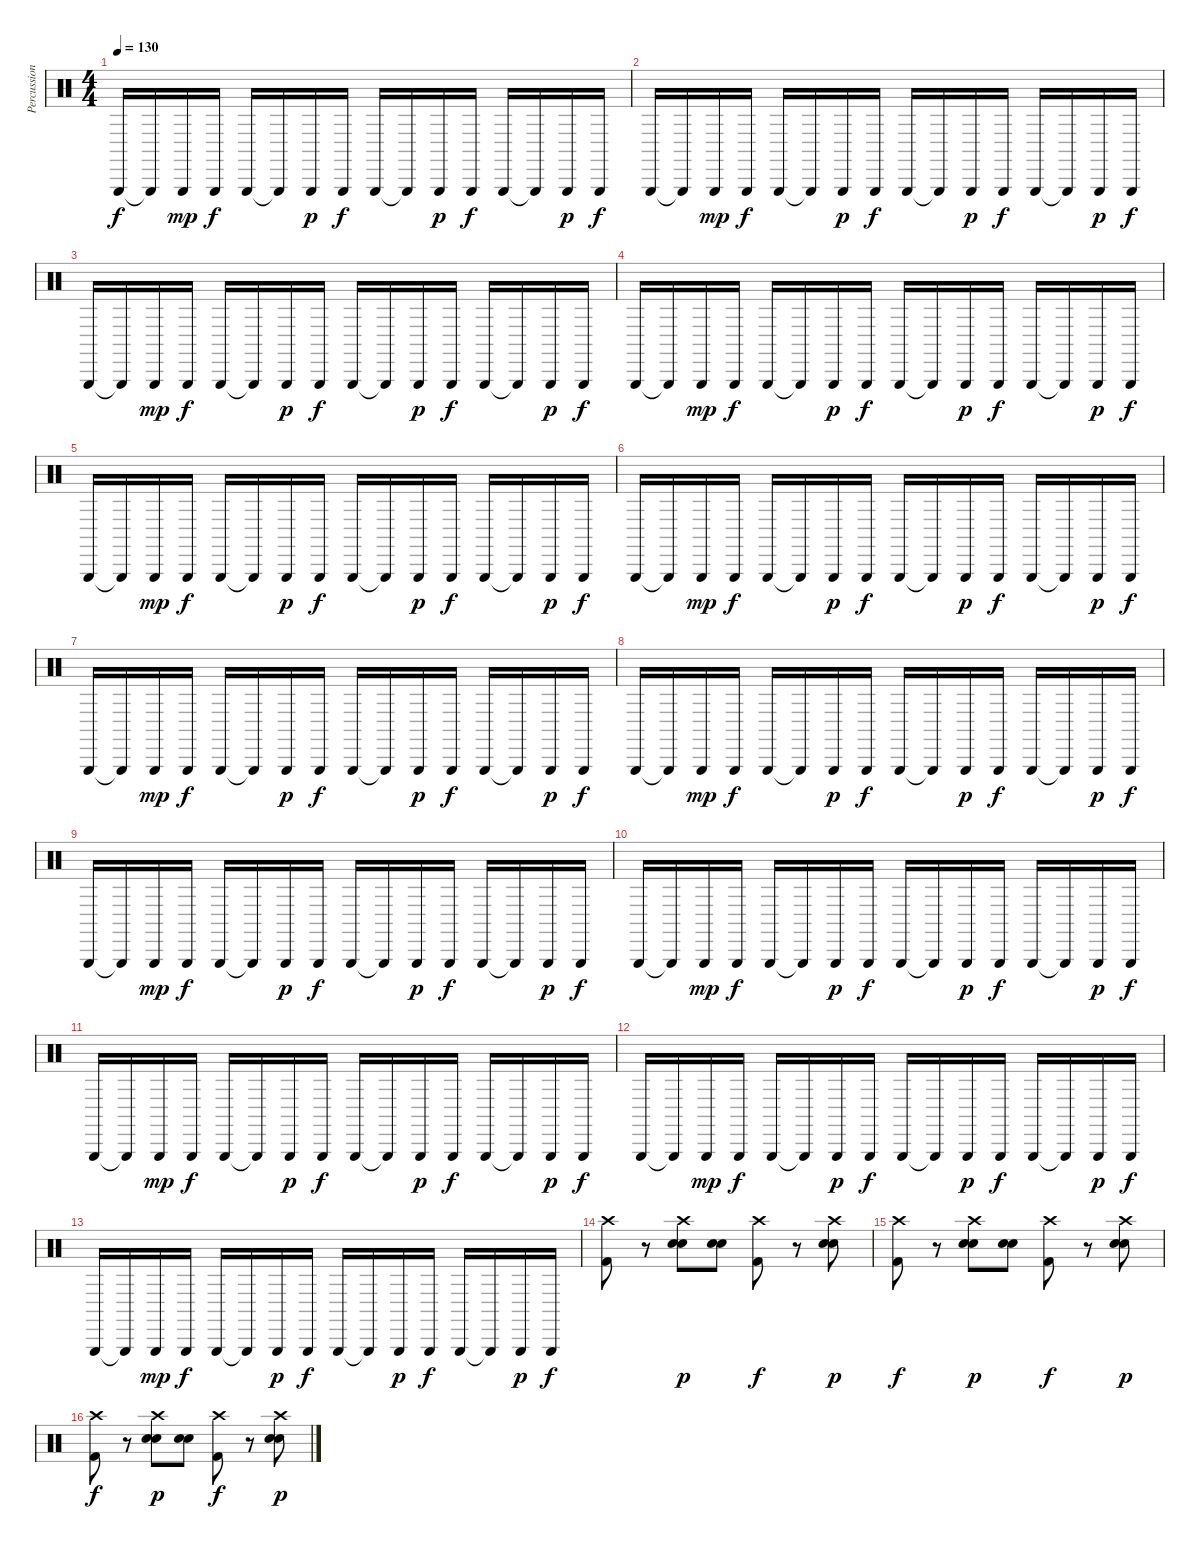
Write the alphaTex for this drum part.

\track ("Percussion" "Percussion") {instrument percussion}
\staff {score}
\articulation defaults
\ts (4 4)
\tempo 130
\clef neutral
\ks c "Triangle (hit)".16{dy f} "Triangle (hit)"{t}.16 "Triangle (hit)".16{dy mp} "Triangle (hit)".16{dy f} "Triangle (hit)".16 "Triangle (hit)"{t}.16 "Triangle (hit)".16{dy p} "Triangle (hit)".16{dy f} "Triangle (hit)".16 "Triangle (hit)"{t}.16 "Triangle (hit)".16{dy p} "Triangle (hit)".16{dy f} "Triangle (hit)".16 "Triangle (hit)"{t}.16 "Triangle (hit)".16{dy p} "Triangle (hit)".16{dy f}
|
"Triangle (hit)".16 "Triangle (hit)"{t}.16 "Triangle (hit)".16{dy mp} "Triangle (hit)".16{dy f} "Triangle (hit)".16 "Triangle (hit)"{t}.16 "Triangle (hit)".16{dy p} "Triangle (hit)".16{dy f} "Triangle (hit)".16 "Triangle (hit)"{t}.16 "Triangle (hit)".16{dy p} "Triangle (hit)".16{dy f} "Triangle (hit)".16 "Triangle (hit)"{t}.16 "Triangle (hit)".16{dy p} "Triangle (hit)".16{dy f} |
"Triangle (hit)".16 "Triangle (hit)"{t}.16 "Triangle (hit)".16{dy mp} "Triangle (hit)".16{dy f} "Triangle (hit)".16 "Triangle (hit)"{t}.16 "Triangle (hit)".16{dy p} "Triangle (hit)".16{dy f} "Triangle (hit)".16 "Triangle (hit)"{t}.16 "Triangle (hit)".16{dy p} "Triangle (hit)".16{dy f} "Triangle (hit)".16 "Triangle (hit)"{t}.16 "Triangle (hit)".16{dy p} "Triangle (hit)".16{dy f} |
"Triangle (hit)".16 "Triangle (hit)"{t}.16 "Triangle (hit)".16{dy mp} "Triangle (hit)".16{dy f} "Triangle (hit)".16 "Triangle (hit)"{t}.16 "Triangle (hit)".16{dy p} "Triangle (hit)".16{dy f} "Triangle (hit)".16 "Triangle (hit)"{t}.16 "Triangle (hit)".16{dy p} "Triangle (hit)".16{dy f} "Triangle (hit)".16 "Triangle (hit)"{t}.16 "Triangle (hit)".16{dy p} "Triangle (hit)".16{dy f} |
"Triangle (hit)".16 "Triangle (hit)"{t}.16 "Triangle (hit)".16{dy mp} "Triangle (hit)".16{dy f} "Triangle (hit)".16 "Triangle (hit)"{t}.16 "Triangle (hit)".16{dy p} "Triangle (hit)".16{dy f} "Triangle (hit)".16 "Triangle (hit)"{t}.16 "Triangle (hit)".16{dy p} "Triangle (hit)".16{dy f} "Triangle (hit)".16 "Triangle (hit)"{t}.16 "Triangle (hit)".16{dy p} "Triangle (hit)".16{dy f} |
"Triangle (hit)".16 "Triangle (hit)"{t}.16 "Triangle (hit)".16{dy mp} "Triangle (hit)".16{dy f} "Triangle (hit)".16 "Triangle (hit)"{t}.16 "Triangle (hit)".16{dy p} "Triangle (hit)".16{dy f} "Triangle (hit)".16 "Triangle (hit)"{t}.16 "Triangle (hit)".16{dy p} "Triangle (hit)".16{dy f} "Triangle (hit)".16 "Triangle (hit)"{t}.16 "Triangle (hit)".16{dy p} "Triangle (hit)".16{dy f} |
"Triangle (hit)".16 "Triangle (hit)"{t}.16 "Triangle (hit)".16{dy mp} "Triangle (hit)".16{dy f} "Triangle (hit)".16 "Triangle (hit)"{t}.16 "Triangle (hit)".16{dy p} "Triangle (hit)".16{dy f} "Triangle (hit)".16 "Triangle (hit)"{t}.16 "Triangle (hit)".16{dy p} "Triangle (hit)".16{dy f} "Triangle (hit)".16 "Triangle (hit)"{t}.16 "Triangle (hit)".16{dy p} "Triangle (hit)".16{dy f} |
"Triangle (hit)".16 "Triangle (hit)"{t}.16 "Triangle (hit)".16{dy mp} "Triangle (hit)".16{dy f} "Triangle (hit)".16 "Triangle (hit)"{t}.16 "Triangle (hit)".16{dy p} "Triangle (hit)".16{dy f} "Triangle (hit)".16 "Triangle (hit)"{t}.16 "Triangle (hit)".16{dy p} "Triangle (hit)".16{dy f} "Triangle (hit)".16 "Triangle (hit)"{t}.16 "Triangle (hit)".16{dy p} "Triangle (hit)".16{dy f} |
"Triangle (hit)".16 "Triangle (hit)"{t}.16 "Triangle (hit)".16{dy mp} "Triangle (hit)".16{dy f} "Triangle (hit)".16 "Triangle (hit)"{t}.16 "Triangle (hit)".16{dy p} "Triangle (hit)".16{dy f} "Triangle (hit)".16 "Triangle (hit)"{t}.16 "Triangle (hit)".16{dy p} "Triangle (hit)".16{dy f} "Triangle (hit)".16 "Triangle (hit)"{t}.16 "Triangle (hit)".16{dy p} "Triangle (hit)".16{dy f} |
"Triangle (hit)".16 "Triangle (hit)"{t}.16 "Triangle (hit)".16{dy mp} "Triangle (hit)".16{dy f} "Triangle (hit)".16 "Triangle (hit)"{t}.16 "Triangle (hit)".16{dy p} "Triangle (hit)".16{dy f} "Triangle (hit)".16 "Triangle (hit)"{t}.16 "Triangle (hit)".16{dy p} "Triangle (hit)".16{dy f} "Triangle (hit)".16 "Triangle (hit)"{t}.16 "Triangle (hit)".16{dy p} "Triangle (hit)".16{dy f} |
"Triangle (hit)".16 "Triangle (hit)"{t}.16 "Triangle (hit)".16{dy mp} "Triangle (hit)".16{dy f} "Triangle (hit)".16 "Triangle (hit)"{t}.16 "Triangle (hit)".16{dy p} "Triangle (hit)".16{dy f} "Triangle (hit)".16 "Triangle (hit)"{t}.16 "Triangle (hit)".16{dy p} "Triangle (hit)".16{dy f} "Triangle (hit)".16 "Triangle (hit)"{t}.16 "Triangle (hit)".16{dy p} "Triangle (hit)".16{dy f} |
"Triangle (hit)".16 "Triangle (hit)"{t}.16 "Triangle (hit)".16{dy mp} "Triangle (hit)".16{dy f} "Triangle (hit)".16 "Triangle (hit)"{t}.16 "Triangle (hit)".16{dy p} "Triangle (hit)".16{dy f} "Triangle (hit)".16 "Triangle (hit)"{t}.16 "Triangle (hit)".16{dy p} "Triangle (hit)".16{dy f} "Triangle (hit)".16 "Triangle (hit)"{t}.16 "Triangle (hit)".16{dy p} "Triangle (hit)".16{dy f} |
"Triangle (hit)".16 "Triangle (hit)"{t}.16 "Triangle (hit)".16{dy mp} "Triangle (hit)".16{dy f} "Triangle (hit)".16 "Triangle (hit)"{t}.16 "Triangle (hit)".16{dy p} "Triangle (hit)".16{dy f} "Triangle (hit)".16 "Triangle (hit)"{t}.16 "Triangle (hit)".16{dy p} "Triangle (hit)".16{dy f} "Triangle (hit)".16 "Triangle (hit)"{t}.16 "Triangle (hit)".16{dy p} "Triangle (hit)".16{dy f} |
("Kick (hit) 2" "Crash high (hit)").8 r.8 ("Electric Snare (hit)" "Crash high (hit)" "Snare (hit) 2").8{dy p} ("Electric Snare (hit)" "Snare (hit) 2").8 ("Kick (hit) 2" "Crash high (hit)").8{dy f} r.8 ("Electric Snare (hit)" "Crash high (hit)" "Snare (hit) 2").8{dy p} |
("Kick (hit) 2" "Crash high (hit)").8{dy f} r.8 ("Electric Snare (hit)" "Crash high (hit)" "Snare (hit) 2").8{dy p} ("Electric Snare (hit)" "Snare (hit) 2").8 ("Kick (hit) 2" "Crash high (hit)").8{dy f} r.8 ("Electric Snare (hit)" "Crash high (hit)" "Snare (hit) 2").8{dy p} |
("Kick (hit) 2" "Crash high (hit)").8{dy f} r.8 ("Electric Snare (hit)" "Crash high (hit)" "Snare (hit) 2").8{dy p} ("Electric Snare (hit)" "Snare (hit) 2").8 ("Kick (hit) 2" "Crash high (hit)").8{dy f} r.8 ("Electric Snare (hit)" "Crash high (hit)" "Snare (hit) 2").8{dy p}
